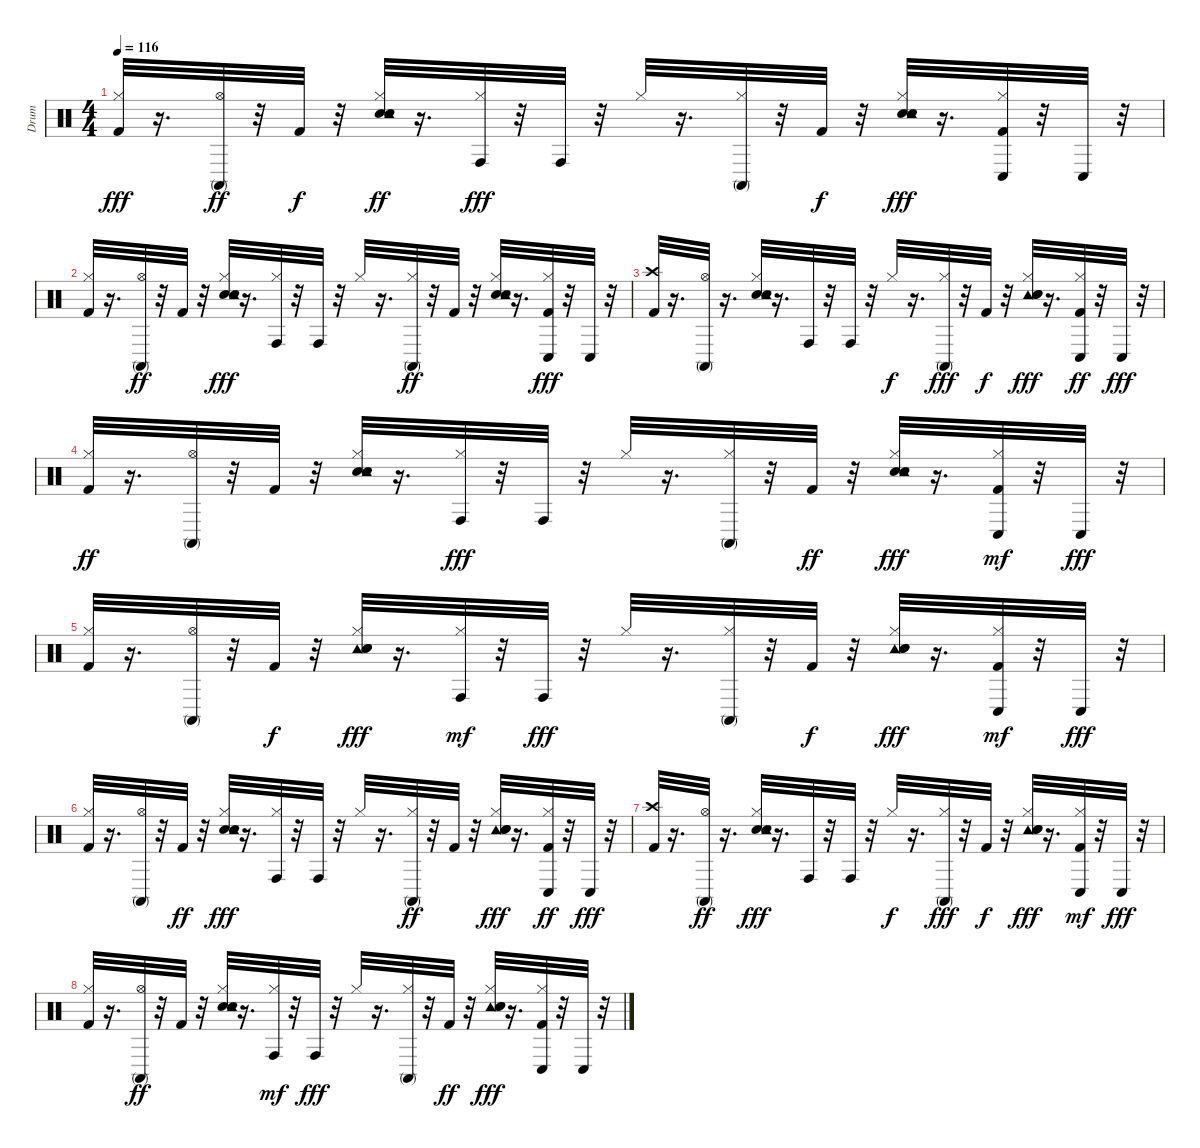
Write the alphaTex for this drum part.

\track ("Drum" "Drum") {instrument percussion}
\staff {score}
\articulation defaults
\ts (4 4)
\tempo 116
\clef neutral
\ks c
("Kick (hit) 2" "Hi-Hat (closed)").32{dy fff} r.16{d} ("Conga high (mute)" "Hi-Hat (open)").32{dy ff} r.32 "Kick (hit) 2".32{dy f} r.32 ("Hand Clap (hit)" "Electric Snare (hit)" "Hi-Hat (closed)" "Tambourine (hit)").32{dy ff} r.16{d} ("Hi-Hat (closed)" "Conga high (hit)").32{dy fff} r.32 "Conga high (hit)".32 r.32 "Hi-Hat (closed)".32 r.16{d} ("Hi-Hat (closed)" "Conga high (mute)").32 r.32 "Kick (hit) 2".32{dy f} r.32 ("Electric Snare (hit)" "Hand Clap (hit)" "Tambourine (hit)" "Hi-Hat (closed)").32{dy fff} r.16{d} ("Kick (hit) 2" "Hi-Hat (closed)" "Conga low (hit)").32 r.32 "Conga low (hit)".32 r.32 |
("Hi-Hat (closed)" "Kick (hit) 2").32 r.16{d} ("Conga high (mute)" "Hi-Hat (open)").32{dy ff} r.32 "Kick (hit) 2".32 r.32 ("Hi-Hat (closed)" "Electric Snare (hit)" "Tambourine (hit)" "Hand Clap (hit)").32{dy fff} r.16{d} ("Conga high (hit)" "Hi-Hat (closed)").32 r.32 "Conga high (hit)".32 r.32 "Hi-Hat (closed)".32 r.16{d} ("Conga high (mute)" "Hi-Hat (closed)").32{dy ff} r.32 "Kick (hit) 2".32 r.32 ("Hi-Hat (closed)" "Hand Clap (hit)" "Electric Snare (hit)" "Tambourine (hit)").32 r.16{d} ("Kick (hit) 2" "Hi-Hat (closed)" "Conga low (hit)").32{dy fff} r.32 "Conga low (hit)".32 r.32 |
("Crash high (hit)" "Kick (hit) 2").32 r.16{d} ("Hi-Hat (open)" "Conga high (mute)").32 r.16{d} ("Hand Clap (hit)" "Hi-Hat (closed)" "Tambourine (hit)" "Electric Snare (hit)").32 r.16{d} "Conga high (hit)".32 r.32 "Conga high (hit)".32 r.32 "Hi-Hat (closed)".32{dy f} r.16{d} ("Conga high (mute)" "Hi-Hat (closed)").32{dy fff} r.32 "Kick (hit) 2".32{dy f} r.32 ("Tambourine (hit)" "Electric Snare (hit)" "Hi-Hat (closed)" "Hand Clap (hit)").32{dy fff} r.16{d} ("Conga low (hit)" "Hi-Hat (closed)" "Kick (hit) 2").32{dy ff} r.32 "Conga low (hit)".32{dy fff} r.32 |
("Kick (hit) 2" "Hi-Hat (closed)").32{dy ff} r.16{d} ("Conga high (mute)" "Hi-Hat (open)").32 r.32 "Kick (hit) 2".32 r.32 ("Hand Clap (hit)" "Electric Snare (hit)" "Tambourine (hit)" "Hi-Hat (closed)").32 r.16{d} ("Hi-Hat (closed)" "Conga high (hit)").32{dy fff} r.32 "Conga high (hit)".32 r.32 "Hi-Hat (closed)".32 r.16{d} ("Conga high (mute)" "Hi-Hat (closed)").32 r.32 "Kick (hit) 2".32{dy ff} r.32 ("Electric Snare (hit)" "Hi-Hat (closed)" "Tambourine (hit)" "Hand Clap (hit)").32{dy fff} r.16{d} ("Conga low (hit)" "Kick (hit) 2" "Hi-Hat (closed)").32{dy mf} r.32 "Conga low (hit)".32{dy fff} r.32 |
("Hi-Hat (closed)" "Kick (hit) 2").32 r.16{d} ("Hi-Hat (open)" "Conga high (mute)").32 r.32 "Kick (hit) 2".32{dy f} r.32 ("Tambourine (hit)" "Hi-Hat (closed)" "Electric Snare (hit)" "Hand Clap (hit)").32{dy fff} r.16{d} ("Conga high (hit)" "Hi-Hat (closed)").32{dy mf} r.32 "Conga high (hit)".32{dy fff} r.32 "Hi-Hat (closed)".32 r.16{d} ("Hi-Hat (closed)" "Conga high (mute)").32 r.32 "Kick (hit) 2".32{dy f} r.32 ("Tambourine (hit)" "Hi-Hat (closed)" "Electric Snare (hit)" "Hand Clap (hit)").32{dy fff} r.16{d} ("Conga low (hit)" "Hi-Hat (closed)" "Kick (hit) 2").32{dy mf} r.32 "Conga low (hit)".32{dy fff} r.32 |
("Kick (hit) 2" "Hi-Hat (closed)").32 r.16{d} ("Hi-Hat (open)" "Conga high (mute)").32 r.32 "Kick (hit) 2".32{dy ff} r.32 ("Electric Snare (hit)" "Tambourine (hit)" "Hi-Hat (closed)" "Hand Clap (hit)").32{dy fff} r.16{d} ("Conga high (hit)" "Hi-Hat (closed)").32 r.32 "Conga high (hit)".32 r.32 "Hi-Hat (closed)".32 r.16{d} ("Conga high (mute)" "Hi-Hat (closed)").32{dy ff} r.32 "Kick (hit) 2".32 r.32 ("Tambourine (hit)" "Hi-Hat (closed)" "Electric Snare (hit)" "Hand Clap (hit)").32{dy fff} r.16{d} ("Conga low (hit)" "Kick (hit) 2" "Hi-Hat (closed)").32{dy ff} r.32 "Conga low (hit)".32{dy fff} r.32 |
("Crash high (hit)" "Kick (hit) 2").32 r.16{d} ("Conga high (mute)" "Hi-Hat (open)").32{dy ff} r.16{d} ("Electric Snare (hit)" "Hi-Hat (closed)" "Tambourine (hit)" "Hand Clap (hit)").32{dy fff} r.16{d} "Conga high (hit)".32 r.32 "Conga high (hit)".32 r.32 "Hi-Hat (closed)".32{dy f} r.16{d} ("Conga high (mute)" "Hi-Hat (closed)").32{dy fff} r.32 "Kick (hit) 2".32{dy f} r.32 ("Tambourine (hit)" "Hi-Hat (closed)" "Electric Snare (hit)" "Hand Clap (hit)").32{dy fff} r.16{d} ("Conga low (hit)" "Kick (hit) 2" "Hi-Hat (closed)").32{dy mf} r.32 "Conga low (hit)".32{dy fff} r.32 |
("Hi-Hat (closed)" "Kick (hit) 2").32 r.16{d} ("Conga high (mute)" "Hi-Hat (open)").32{dy ff} r.32 "Kick (hit) 2".32 r.32 ("Hand Clap (hit)" "Electric Snare (hit)" "Hi-Hat (closed)" "Tambourine (hit)").32 r.16{d} ("Conga high (hit)" "Hi-Hat (closed)").32{dy mf} r.32 "Conga high (hit)".32{dy fff} r.32 "Hi-Hat (closed)".32 r.16{d} ("Conga high (mute)" "Hi-Hat (closed)").32 r.32 "Kick (hit) 2".32{dy ff} r.32 ("Tambourine (hit)" "Hand Clap (hit)" "Hi-Hat (closed)" "Electric Snare (hit)").32{dy fff} r.16{d} ("Hi-Hat (closed)" "Kick (hit) 2" "Conga low (hit)").32 r.32 "Conga low (hit)".32 r.32
